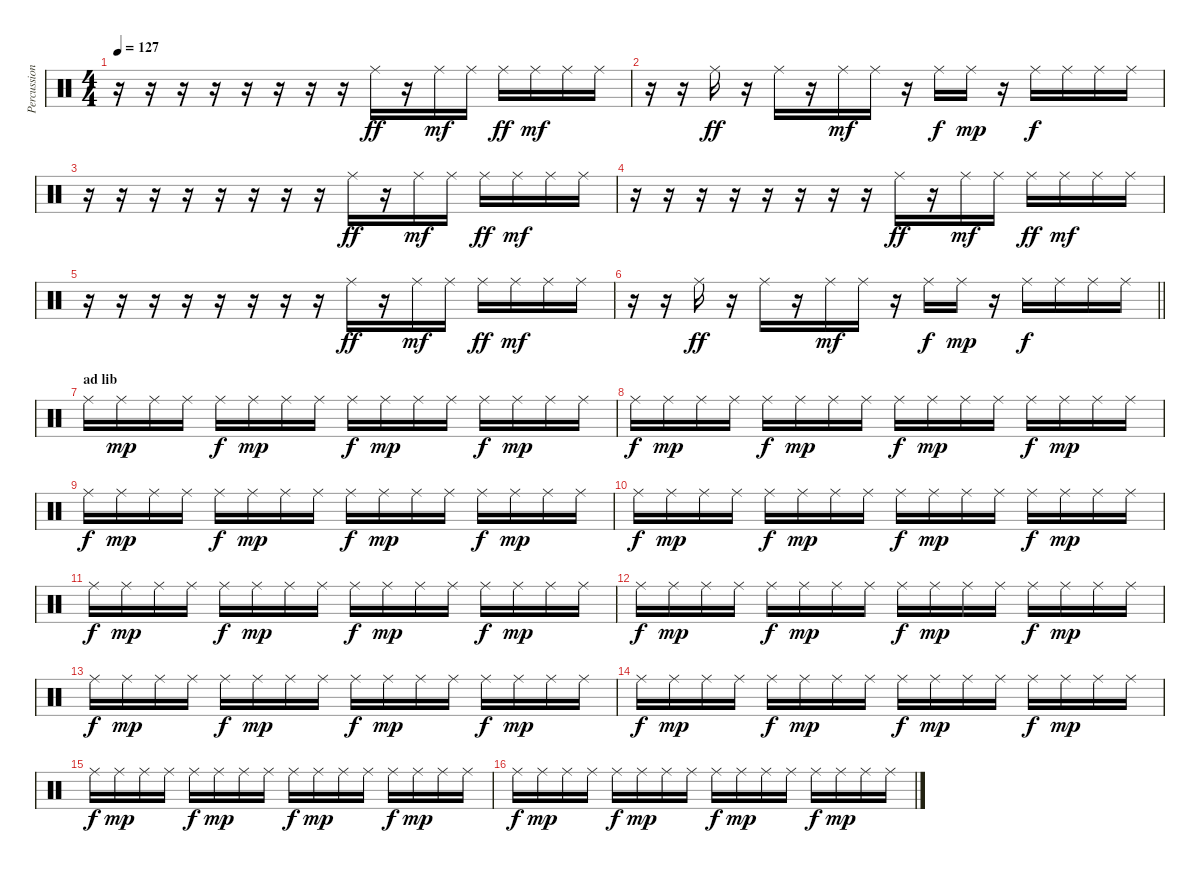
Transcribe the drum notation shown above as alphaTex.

\track ("Percussion" "Percussion") {instrument percussion}
\staff {score}
\articulation defaults
\ts (4 4)
\tempo 127
\clef neutral
\ks c
r.16{dy mf} r.16 r.16 r.16 r.16 r.16 r.16 r.16 "Ride (middle)".16{dy ff} r.16 "Ride (middle)".16{dy mf} "Ride (middle)".16 "Ride (middle)".16{dy ff} "Ride (middle)".16{dy mf} "Ride (middle)".16 "Ride (middle)".16 |
r.16 r.16 "Ride (middle)".16{dy ff} r.16 "Ride (middle)".16 r.16 "Ride (middle)".16{dy mf} "Ride (middle)".16 r.16 "Ride (middle)".16{dy f} "Ride (middle)".16{dy mp} r.16 "Ride (middle)".16{dy f} "Ride (middle)".16 "Ride (middle)".16 "Ride (middle)".16 |
r.16 r.16 r.16 r.16 r.16 r.16 r.16 r.16 "Ride (middle)".16{dy ff} r.16 "Ride (middle)".16{dy mf} "Ride (middle)".16 "Ride (middle)".16{dy ff} "Ride (middle)".16{dy mf} "Ride (middle)".16 "Ride (middle)".16 |
r.16 r.16 r.16 r.16 r.16 r.16 r.16 r.16 "Ride (middle)".16{dy ff} r.16 "Ride (middle)".16{dy mf} "Ride (middle)".16 "Ride (middle)".16{dy ff} "Ride (middle)".16{dy mf} "Ride (middle)".16 "Ride (middle)".16 |
r.16 r.16 r.16 r.16 r.16 r.16 r.16 r.16 "Ride (middle)".16{dy ff} r.16 "Ride (middle)".16{dy mf} "Ride (middle)".16 "Ride (middle)".16{dy ff} "Ride (middle)".16{dy mf} "Ride (middle)".16 "Ride (middle)".16 |
\barLineRight lightlight
r.16 r.16 "Ride (middle)".16{dy ff} r.16 "Ride (middle)".16 r.16 "Ride (middle)".16{dy mf} "Ride (middle)".16 r.16 "Ride (middle)".16{dy f} "Ride (middle)".16{dy mp} r.16 "Ride (middle)".16{dy f} "Ride (middle)".16 "Ride (middle)".16 "Ride (middle)".16 |
\section ("" "ad lib")
"Ride (middle)".16 "Ride (middle)".16{dy mp} "Ride (middle)".16 "Ride (middle)".16 "Ride (middle)".16{dy f} "Ride (middle)".16{dy mp} "Ride (middle)".16 "Ride (middle)".16 "Ride (middle)".16{dy f} "Ride (middle)".16{dy mp} "Ride (middle)".16 "Ride (middle)".16 "Ride (middle)".16{dy f} "Ride (middle)".16{dy mp} "Ride (middle)".16 "Ride (middle)".16 |
"Ride (middle)".16{dy f} "Ride (middle)".16{dy mp} "Ride (middle)".16 "Ride (middle)".16 "Ride (middle)".16{dy f} "Ride (middle)".16{dy mp} "Ride (middle)".16 "Ride (middle)".16 "Ride (middle)".16{dy f} "Ride (middle)".16{dy mp} "Ride (middle)".16 "Ride (middle)".16 "Ride (middle)".16{dy f} "Ride (middle)".16{dy mp} "Ride (middle)".16 "Ride (middle)".16 |
"Ride (middle)".16{dy f} "Ride (middle)".16{dy mp} "Ride (middle)".16 "Ride (middle)".16 "Ride (middle)".16{dy f} "Ride (middle)".16{dy mp} "Ride (middle)".16 "Ride (middle)".16 "Ride (middle)".16{dy f} "Ride (middle)".16{dy mp} "Ride (middle)".16 "Ride (middle)".16 "Ride (middle)".16{dy f} "Ride (middle)".16{dy mp} "Ride (middle)".16 "Ride (middle)".16 |
"Ride (middle)".16{dy f} "Ride (middle)".16{dy mp} "Ride (middle)".16 "Ride (middle)".16 "Ride (middle)".16{dy f} "Ride (middle)".16{dy mp} "Ride (middle)".16 "Ride (middle)".16 "Ride (middle)".16{dy f} "Ride (middle)".16{dy mp} "Ride (middle)".16 "Ride (middle)".16 "Ride (middle)".16{dy f} "Ride (middle)".16{dy mp} "Ride (middle)".16 "Ride (middle)".16 |
"Ride (middle)".16{dy f} "Ride (middle)".16{dy mp} "Ride (middle)".16 "Ride (middle)".16 "Ride (middle)".16{dy f} "Ride (middle)".16{dy mp} "Ride (middle)".16 "Ride (middle)".16 "Ride (middle)".16{dy f} "Ride (middle)".16{dy mp} "Ride (middle)".16 "Ride (middle)".16 "Ride (middle)".16{dy f} "Ride (middle)".16{dy mp} "Ride (middle)".16 "Ride (middle)".16 |
"Ride (middle)".16{dy f} "Ride (middle)".16{dy mp} "Ride (middle)".16 "Ride (middle)".16 "Ride (middle)".16{dy f} "Ride (middle)".16{dy mp} "Ride (middle)".16 "Ride (middle)".16 "Ride (middle)".16{dy f} "Ride (middle)".16{dy mp} "Ride (middle)".16 "Ride (middle)".16 "Ride (middle)".16{dy f} "Ride (middle)".16{dy mp} "Ride (middle)".16 "Ride (middle)".16 |
"Ride (middle)".16{dy f} "Ride (middle)".16{dy mp} "Ride (middle)".16 "Ride (middle)".16 "Ride (middle)".16{dy f} "Ride (middle)".16{dy mp} "Ride (middle)".16 "Ride (middle)".16 "Ride (middle)".16{dy f} "Ride (middle)".16{dy mp} "Ride (middle)".16 "Ride (middle)".16 "Ride (middle)".16{dy f} "Ride (middle)".16{dy mp} "Ride (middle)".16 "Ride (middle)".16 |
"Ride (middle)".16{dy f} "Ride (middle)".16{dy mp} "Ride (middle)".16 "Ride (middle)".16 "Ride (middle)".16{dy f} "Ride (middle)".16{dy mp} "Ride (middle)".16 "Ride (middle)".16 "Ride (middle)".16{dy f} "Ride (middle)".16{dy mp} "Ride (middle)".16 "Ride (middle)".16 "Ride (middle)".16{dy f} "Ride (middle)".16{dy mp} "Ride (middle)".16 "Ride (middle)".16 |
"Ride (middle)".16{dy f} "Ride (middle)".16{dy mp} "Ride (middle)".16 "Ride (middle)".16 "Ride (middle)".16{dy f} "Ride (middle)".16{dy mp} "Ride (middle)".16 "Ride (middle)".16 "Ride (middle)".16{dy f} "Ride (middle)".16{dy mp} "Ride (middle)".16 "Ride (middle)".16 "Ride (middle)".16{dy f} "Ride (middle)".16{dy mp} "Ride (middle)".16 "Ride (middle)".16 |
"Ride (middle)".16{dy f} "Ride (middle)".16{dy mp} "Ride (middle)".16 "Ride (middle)".16 "Ride (middle)".16{dy f} "Ride (middle)".16{dy mp} "Ride (middle)".16 "Ride (middle)".16 "Ride (middle)".16{dy f} "Ride (middle)".16{dy mp} "Ride (middle)".16 "Ride (middle)".16 "Ride (middle)".16{dy f} "Ride (middle)".16{dy mp} "Ride (middle)".16 "Ride (middle)".16
